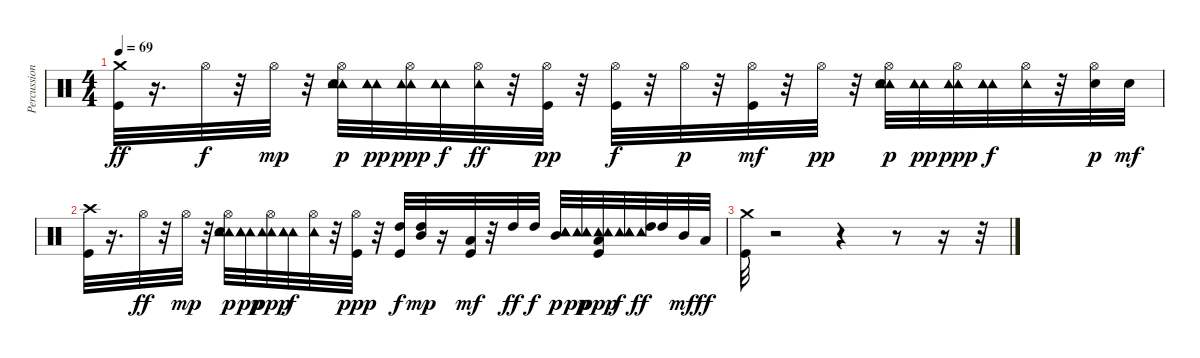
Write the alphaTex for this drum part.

\track ("Percussions" "Percussion") {instrument percussion}
\staff {score}
\articulation defaults
\ts (4 4)
\tempo 69
\clef neutral
\ks c
("Crash medium (hit)" "Kick (hit)").32{dy ff} r.16{d} "Hi-Hat (open)".32{dy f} r.32 "Hi-Hat (open)".32{dy mp} r.32 ("Tambourine (hit)" "Tambourine (hit)" "Hi-Hat (open)" "Electric Snare (hit)" "Tambourine (hit)").32{dy p} ("Tambourine (hit)" "Tambourine (hit)" "Tambourine (hit)").32{dy pp} ("Tambourine (hit)" "Hi-Hat (open)" "Tambourine (hit)").32{dy ppp} ("Tambourine (hit)" "Tambourine (hit)" "Tambourine (hit)").32{dy f} ("Tambourine (hit)" "Hi-Hat (open)").32{dy ff} r.32 ("Kick (hit)" "Hi-Hat (open)").32{dy pp} r.32 ("Kick (hit)" "Hi-Hat (open)").32{dy f} r.32 "Hi-Hat (open)".32{dy p} r.32 ("Hi-Hat (open)" "Kick (hit)").32{dy mf} r.32 "Hi-Hat (open)".32{dy pp} r.32 ("Tambourine (hit)" "Tambourine (hit)" "Hi-Hat (open)" "Electric Snare (hit)" "Tambourine (hit)").32{dy p} ("Tambourine (hit)" "Tambourine (hit)" "Tambourine (hit)").32{dy pp} ("Tambourine (hit)" "Hi-Hat (open)" "Tambourine (hit)").32{dy ppp} ("Tambourine (hit)" "Tambourine (hit)" "Tambourine (hit)").32{dy f} ("Tambourine (hit)" "Hi-Hat (open)").32 r.32 ("Hi-Hat (open)" "Electric Snare (hit)").32{dy p} "Electric Snare (hit)".32{dy mf} |
("Crash high (hit)" "Kick (hit)").32 r.16{d} "Hi-Hat (open)".32{dy ff} r.32 "Hi-Hat (open)".32{dy mp} r.32 ("Tambourine (hit)" "Electric Snare (hit)" "Tambourine (hit)" "Hi-Hat (open)" "Tambourine (hit)").32{dy p} ("Tambourine (hit)" "Tambourine (hit)" "Tambourine (hit)").32{dy pp} ("Tambourine (hit)" "Hi-Hat (open)" "Tambourine (hit)").32{dy ppp} ("Tambourine (hit)" "Tambourine (hit)" "Tambourine (hit)").32{dy f} ("Tambourine (hit)" "Hi-Hat (open)").32 r.32 ("Hi-Hat (open)" "Kick (hit)").32{dy ppp} r.32 ("High Tom (hit)" "Kick (hit)").32{dy f} ("High Tom (hit)" "Mid Tom (hit)").32{dy mp} r.16 ("Low Tom (hit)" "Kick (hit)").32{dy mf} r.32 "High Tom (hit)".32{dy ff} "High Tom (hit)".32{dy f} ("Tambourine (hit)" "Mid Tom (hit)" "Tambourine (hit)" "Tambourine (hit)").32{dy p} ("Tambourine (hit)" "Tambourine (hit)" "Tambourine (hit)").32{dy pp} ("Low Tom (hit)" "Tambourine (hit)" "Kick (hit)" "Tambourine (hit)").32{dy ppp} ("Tambourine (hit)" "Tambourine (hit)" "Tambourine (hit)").32{dy f} ("Tambourine (hit)" "High Tom (hit)").32{dy ff} "High Tom (hit)".32 "Mid Tom (hit)".32{dy mf} "Low Tom (hit)".32{dy ff} |
("Crash medium (hit)" "Kick (hit)").32 r.2 r.4 r.8 r.16 r.32
